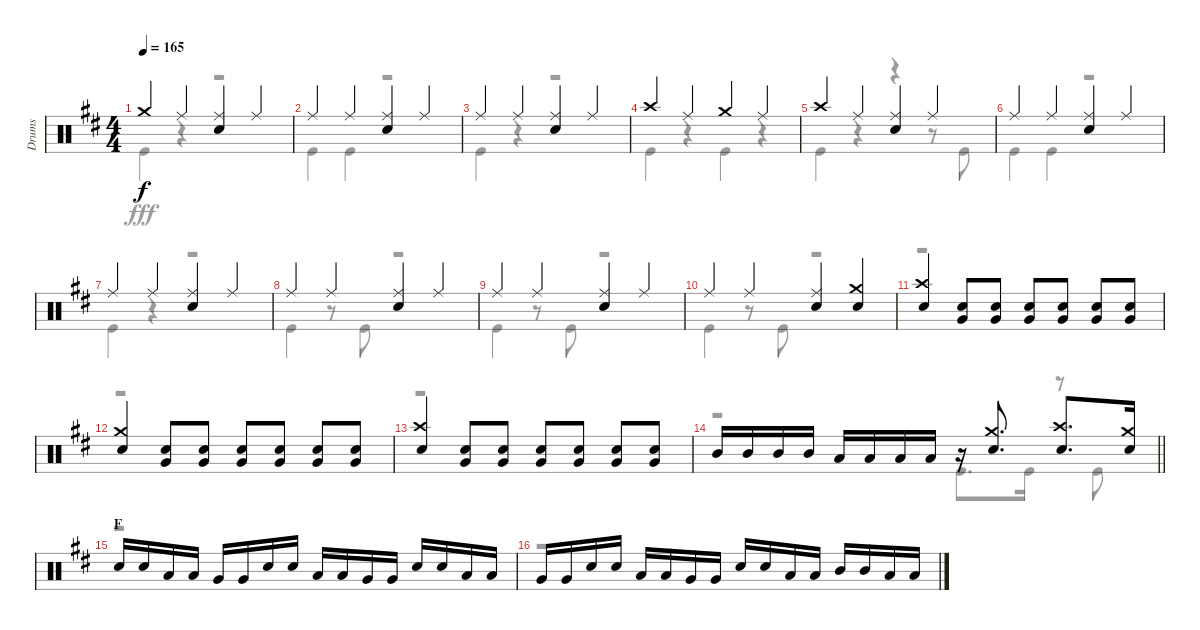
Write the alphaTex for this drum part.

\track ("Drums" "Drums") {instrument percussion}
\staff {score}
\articulation defaults
\voice
\ts (4 4)
\tempo 165
\clef neutral
\ks d "Crash medium (hit)".4{dy f} "Ride (middle)".4
("Ride (middle)" "Snare (hit) 2").4 "Ride (middle)".4 |
"Ride (middle)".4 "Ride (middle)".4 ("Ride (middle)" "Snare (hit) 2").4 "Ride (middle)".4 |
"Ride (middle)".4 "Ride (middle)".4 ("Ride (middle)" "Snare (hit) 2").4 "Ride (middle)".4 |
"Crash high (hit)".4 "Ride (middle)".4 "Crash medium (hit)".4 "Ride (middle)".4 |
"Crash high (hit)".4 "Ride (middle)".4 ("Ride (middle)" "Snare (hit) 2").4 "Ride (middle)".4 |
"Ride (middle)".4 "Ride (middle)".4 ("Ride (middle)" "Snare (hit) 2").4 "Ride (middle)".4 |
"Ride (middle)".4 "Ride (middle)".4 ("Ride (middle)" "Snare (hit) 2").4 "Ride (middle)".4 |
"Ride (middle)".4 "Ride (middle)".4 ("Ride (middle)" "Snare (hit) 2").4 "Ride (middle)".4 |
"Ride (middle)".4 "Ride (middle)".4 ("Ride (middle)" "Snare (hit) 2").4 "Ride (middle)".4 |
"Ride (middle)".4 "Ride (middle)".4 ("Ride (middle)" "Snare (hit) 2").4 ("Crash medium (hit)" "Snare (hit) 2").4 |
("Crash high (hit)" "Snare (hit) 2").4 ("Snare (hit) 2" "Very Low Tom (hit)").8 ("Snare (hit) 2" "Very Low Tom (hit)").8 ("Snare (hit) 2" "Very Low Tom (hit)").8 ("Snare (hit) 2" "Very Low Tom (hit)").8 ("Snare (hit) 2" "Very Low Tom (hit)").8 ("Snare (hit) 2" "Very Low Tom (hit)").8 |
("Crash medium (hit)" "Snare (hit) 2").4 ("Snare (hit) 2" "Very Low Tom (hit)").8 ("Snare (hit) 2" "Very Low Tom (hit)").8 ("Snare (hit) 2" "Very Low Tom (hit)").8 ("Snare (hit) 2" "Very Low Tom (hit)").8 ("Snare (hit) 2" "Very Low Tom (hit)").8 ("Snare (hit) 2" "Very Low Tom (hit)").8 |
("Crash high (hit)" "Snare (hit) 2").4 ("Snare (hit) 2" "Very Low Tom (hit)").8 ("Snare (hit) 2" "Very Low Tom (hit)").8 ("Snare (hit) 2" "Very Low Tom (hit)").8 ("Snare (hit) 2" "Very Low Tom (hit)").8 ("Snare (hit) 2" "Very Low Tom (hit)").8 ("Snare (hit) 2" "Very Low Tom (hit)").8 |
\barLineRight lightlight "Mid Tom (hit)".16 "Mid Tom (hit)".16 "Mid Tom (hit)".16 "Mid Tom (hit)".16 "Low Tom (hit)".16 "Low Tom (hit)".16 "Low Tom (hit)".16 "Low Tom (hit)".16
r.16 ("Crash medium (hit)" "Snare (hit) 2").8{d} ("Crash high (hit)" "Snare (hit) 2").8{d} ("Crash medium (hit)" "Snare (hit) 2").16 |
\section ("" "F")
"Snare (hit) 2".16 "Snare (hit) 2".16 "Low Tom (hit)".16 "Low Tom (hit)".16 "Very Low Tom (hit)".16 "Very Low Tom (hit)".16 "Snare (hit) 2".16 "Snare (hit) 2".16 "Low Tom (hit)".16 "Low Tom (hit)".16 "Very Low Tom (hit)".16 "Very Low Tom (hit)".16 "Snare (hit) 2".16 "Snare (hit) 2".16 "Low Tom (hit)".16 "Low Tom (hit)".16 |
"Very Low Tom (hit)".16 "Very Low Tom (hit)".16 "Snare (hit) 2".16 "Snare (hit) 2".16 "Low Tom (hit)".16 "Low Tom (hit)".16 "Very Low Tom (hit)".16 "Very Low Tom (hit)".16 "Snare (hit) 2".16 "Snare (hit) 2".16 "Low Tom (hit)".16 "Low Tom (hit)".16 "Mid Tom (hit)".16 "Mid Tom (hit)".16 "Low Tom (hit)".16 "Low Tom (hit)".16
\voice
\clef neutral
\ottava regular
\simile none
\ks d "Kick (hit)".4{dy fff}
r.4 r.2 |
"Kick (hit)".4 "Kick (hit)".4 r.2 |
"Kick (hit)".4 r.4 r.2 |
"Kick (hit)".4 r.4 "Kick (hit)".4 r.4 |
"Kick (hit)".4 r.4 r.4 r.8 "Kick (hit)".8 |
"Kick (hit)".4 "Kick (hit)".4 r.2 |
"Kick (hit)".4 r.4 r.2 |
"Kick (hit)".4 r.8 "Kick (hit)".8 r.2 |
"Kick (hit)".4 r.8 "Kick (hit)".8 r.2 |
"Kick (hit)".4 r.8 "Kick (hit)".8 r.2 |
r.1 |
r.1 |
r.1 |
\barLineRight lightlight
r.2 "Kick (hit)".8{d} "Kick (hit)".16 r.8 "Kick (hit)".8 |
r.1 |
r.1
